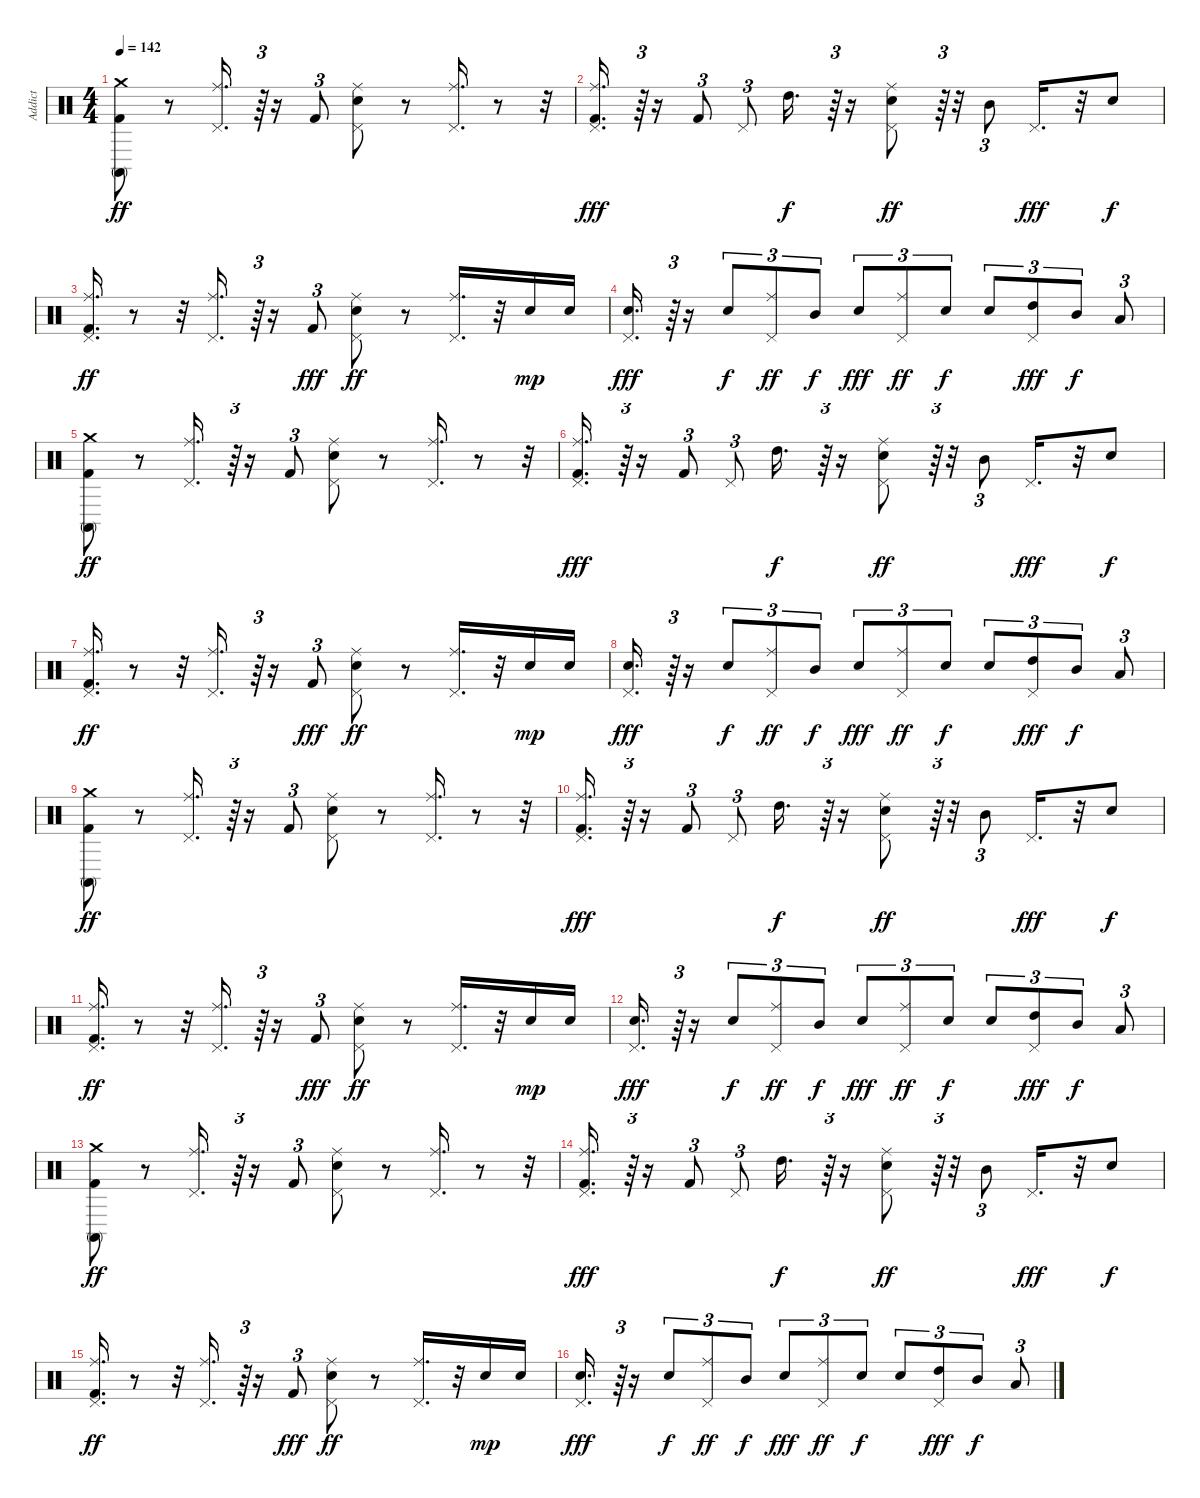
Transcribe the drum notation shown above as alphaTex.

\track ("Addict" "Addict") {instrument percussion}
\staff {score}
\articulation defaults
\ts (4 4)
\tempo 142
\clef neutral
\ks c
("Kick (hit) 2" "Conga high (mute)" "Crash medium (hit)").8{dy ff} r.8 ("Ride (middle)" "Pedal Hi-Hat (hit)").16{d} r.64{tu (3 2)} r.16 "Kick (hit) 2".8{tu (3 2)} ("Snare (hit) 2" "Pedal Hi-Hat (hit)" "Ride (middle)").8 r.8 ("Pedal Hi-Hat (hit)" "Ride (middle)").16{d} r.8 r.32 |
("Kick (hit) 2" "Pedal Hi-Hat (hit)" "Ride (middle)").16{d dy fff} r.64{tu (3 2)} r.16 "Kick (hit) 2".8{tu (3 2)} "Pedal Hi-Hat (hit)".8{tu (3 2)} "High Tom (hit)".16{d dy f} r.64{tu (3 2)} r.16 ("Snare (hit) 2" "Pedal Hi-Hat (hit)" "Ride (middle)").8{dy ff} r.64{tu (3 2)} r.32 "Mid Tom (hit)".8{tu (3 2)} "Pedal Hi-Hat (hit)".16{d dy fff} r.32 "Snare (hit) 2".8{dy f} |
("Kick (hit) 2" "Pedal Hi-Hat (hit)" "Ride (middle)").16{d dy ff} r.8 r.32 ("Pedal Hi-Hat (hit)" "Ride (middle)").16{d} r.64{tu (3 2)} r.16 "Kick (hit) 2".8{tu (3 2) dy fff} ("Snare (hit) 2" "Pedal Hi-Hat (hit)" "Ride (middle)").8{dy ff} r.8 ("Pedal Hi-Hat (hit)" "Ride (middle)").16{d} r.32 "Snare (hit) 2".16{dy mp} "Snare (hit) 2".16 |
("Snare (hit) 2" "Pedal Hi-Hat (hit)").16{d dy fff} r.64{tu (3 2)} r.16 "Snare (hit) 2".8{tu (3 2) dy f} ("Pedal Hi-Hat (hit)" "Ride (middle)").8{tu (3 2) dy ff} "Mid Tom (hit)".8{tu (3 2) dy f} "Snare (hit) 2".8{tu (3 2) dy fff} ("Pedal Hi-Hat (hit)" "Ride (middle)").8{tu (3 2) dy ff} "Snare (hit) 2".8{tu (3 2) dy f} "Snare (hit) 2".8{tu (3 2)} ("Pedal Hi-Hat (hit)" "High Tom (hit)").8{tu (3 2) dy fff} "Mid Tom (hit)".8{tu (3 2) dy f} "Low Tom (hit)".8{tu (3 2)} |
("Kick (hit) 2" "Conga high (mute)" "Crash medium (hit)").8{dy ff} r.8 ("Ride (middle)" "Pedal Hi-Hat (hit)").16{d} r.64{tu (3 2)} r.16 "Kick (hit) 2".8{tu (3 2)} ("Snare (hit) 2" "Pedal Hi-Hat (hit)" "Ride (middle)").8 r.8 ("Pedal Hi-Hat (hit)" "Ride (middle)").16{d} r.8 r.32 |
("Kick (hit) 2" "Pedal Hi-Hat (hit)" "Ride (middle)").16{d dy fff} r.64{tu (3 2)} r.16 "Kick (hit) 2".8{tu (3 2)} "Pedal Hi-Hat (hit)".8{tu (3 2)} "High Tom (hit)".16{d dy f} r.64{tu (3 2)} r.16 ("Snare (hit) 2" "Pedal Hi-Hat (hit)" "Ride (middle)").8{dy ff} r.64{tu (3 2)} r.32 "Mid Tom (hit)".8{tu (3 2)} "Pedal Hi-Hat (hit)".16{d dy fff} r.32 "Snare (hit) 2".8{dy f} |
("Kick (hit) 2" "Pedal Hi-Hat (hit)" "Ride (middle)").16{d dy ff} r.8 r.32 ("Pedal Hi-Hat (hit)" "Ride (middle)").16{d} r.64{tu (3 2)} r.16 "Kick (hit) 2".8{tu (3 2) dy fff} ("Snare (hit) 2" "Pedal Hi-Hat (hit)" "Ride (middle)").8{dy ff} r.8 ("Pedal Hi-Hat (hit)" "Ride (middle)").16{d} r.32 "Snare (hit) 2".16{dy mp} "Snare (hit) 2".16 |
("Snare (hit) 2" "Pedal Hi-Hat (hit)").16{d dy fff} r.64{tu (3 2)} r.16 "Snare (hit) 2".8{tu (3 2) dy f} ("Pedal Hi-Hat (hit)" "Ride (middle)").8{tu (3 2) dy ff} "Mid Tom (hit)".8{tu (3 2) dy f} "Snare (hit) 2".8{tu (3 2) dy fff} ("Pedal Hi-Hat (hit)" "Ride (middle)").8{tu (3 2) dy ff} "Snare (hit) 2".8{tu (3 2) dy f} "Snare (hit) 2".8{tu (3 2)} ("Pedal Hi-Hat (hit)" "High Tom (hit)").8{tu (3 2) dy fff} "Mid Tom (hit)".8{tu (3 2) dy f} "Low Tom (hit)".8{tu (3 2)} |
("Kick (hit) 2" "Conga high (mute)" "Crash medium (hit)").8{dy ff} r.8 ("Ride (middle)" "Pedal Hi-Hat (hit)").16{d} r.64{tu (3 2)} r.16 "Kick (hit) 2".8{tu (3 2)} ("Snare (hit) 2" "Pedal Hi-Hat (hit)" "Ride (middle)").8 r.8 ("Pedal Hi-Hat (hit)" "Ride (middle)").16{d} r.8 r.32 |
("Kick (hit) 2" "Pedal Hi-Hat (hit)" "Ride (middle)").16{d dy fff} r.64{tu (3 2)} r.16 "Kick (hit) 2".8{tu (3 2)} "Pedal Hi-Hat (hit)".8{tu (3 2)} "High Tom (hit)".16{d dy f} r.64{tu (3 2)} r.16 ("Snare (hit) 2" "Pedal Hi-Hat (hit)" "Ride (middle)").8{dy ff} r.64{tu (3 2)} r.32 "Mid Tom (hit)".8{tu (3 2)} "Pedal Hi-Hat (hit)".16{d dy fff} r.32 "Snare (hit) 2".8{dy f} |
("Kick (hit) 2" "Pedal Hi-Hat (hit)" "Ride (middle)").16{d dy ff} r.8 r.32 ("Pedal Hi-Hat (hit)" "Ride (middle)").16{d} r.64{tu (3 2)} r.16 "Kick (hit) 2".8{tu (3 2) dy fff} ("Snare (hit) 2" "Pedal Hi-Hat (hit)" "Ride (middle)").8{dy ff} r.8 ("Pedal Hi-Hat (hit)" "Ride (middle)").16{d} r.32 "Snare (hit) 2".16{dy mp} "Snare (hit) 2".16 |
("Snare (hit) 2" "Pedal Hi-Hat (hit)").16{d dy fff} r.64{tu (3 2)} r.16 "Snare (hit) 2".8{tu (3 2) dy f} ("Pedal Hi-Hat (hit)" "Ride (middle)").8{tu (3 2) dy ff} "Mid Tom (hit)".8{tu (3 2) dy f} "Snare (hit) 2".8{tu (3 2) dy fff} ("Pedal Hi-Hat (hit)" "Ride (middle)").8{tu (3 2) dy ff} "Snare (hit) 2".8{tu (3 2) dy f} "Snare (hit) 2".8{tu (3 2)} ("Pedal Hi-Hat (hit)" "High Tom (hit)").8{tu (3 2) dy fff} "Mid Tom (hit)".8{tu (3 2) dy f} "Low Tom (hit)".8{tu (3 2)} |
("Kick (hit) 2" "Conga high (mute)" "Crash medium (hit)").8{dy ff} r.8 ("Ride (middle)" "Pedal Hi-Hat (hit)").16{d} r.64{tu (3 2)} r.16 "Kick (hit) 2".8{tu (3 2)} ("Snare (hit) 2" "Pedal Hi-Hat (hit)" "Ride (middle)").8 r.8 ("Pedal Hi-Hat (hit)" "Ride (middle)").16{d} r.8 r.32 |
("Kick (hit) 2" "Pedal Hi-Hat (hit)" "Ride (middle)").16{d dy fff} r.64{tu (3 2)} r.16 "Kick (hit) 2".8{tu (3 2)} "Pedal Hi-Hat (hit)".8{tu (3 2)} "High Tom (hit)".16{d dy f} r.64{tu (3 2)} r.16 ("Snare (hit) 2" "Pedal Hi-Hat (hit)" "Ride (middle)").8{dy ff} r.64{tu (3 2)} r.32 "Mid Tom (hit)".8{tu (3 2)} "Pedal Hi-Hat (hit)".16{d dy fff} r.32 "Snare (hit) 2".8{dy f} |
("Kick (hit) 2" "Pedal Hi-Hat (hit)" "Ride (middle)").16{d dy ff} r.8 r.32 ("Pedal Hi-Hat (hit)" "Ride (middle)").16{d} r.64{tu (3 2)} r.16 "Kick (hit) 2".8{tu (3 2) dy fff} ("Snare (hit) 2" "Pedal Hi-Hat (hit)" "Ride (middle)").8{dy ff} r.8 ("Pedal Hi-Hat (hit)" "Ride (middle)").16{d} r.32 "Snare (hit) 2".16{dy mp} "Snare (hit) 2".16 |
("Snare (hit) 2" "Pedal Hi-Hat (hit)").16{d dy fff} r.64{tu (3 2)} r.16 "Snare (hit) 2".8{tu (3 2) dy f} ("Pedal Hi-Hat (hit)" "Ride (middle)").8{tu (3 2) dy ff} "Mid Tom (hit)".8{tu (3 2) dy f} "Snare (hit) 2".8{tu (3 2) dy fff} ("Pedal Hi-Hat (hit)" "Ride (middle)").8{tu (3 2) dy ff} "Snare (hit) 2".8{tu (3 2) dy f} "Snare (hit) 2".8{tu (3 2)} ("Pedal Hi-Hat (hit)" "High Tom (hit)").8{tu (3 2) dy fff} "Mid Tom (hit)".8{tu (3 2) dy f} "Low Tom (hit)".8{tu (3 2)}
